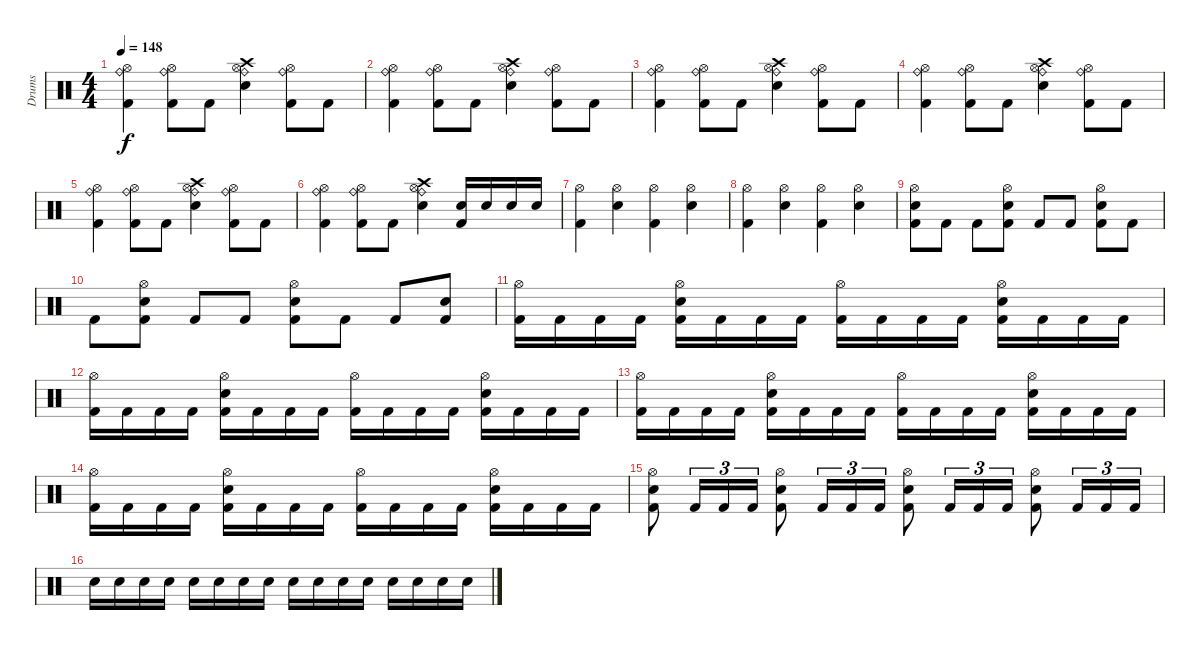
\track ("Drums" "Drums") {instrument percussion}
\staff {score}
\articulation defaults
\ts (4 4)
\tempo 148
\clef neutral
\ks c
("Ride (bell)" "Hi-Hat (open)" "Kick (hit) 2").4{dy f} ("Ride (bell)" "Hi-Hat (open)" "Kick (hit) 2").8 "Kick (hit) 2".8 ("Ride (bell)" "Crash high (hit)" "Hi-Hat (open)" "Snare (hit) 2").4 ("Ride (bell)" "Hi-Hat (open)" "Kick (hit) 2").8 "Kick (hit) 2".8 |
("Ride (bell)" "Hi-Hat (open)" "Kick (hit) 2").4 ("Ride (bell)" "Hi-Hat (open)" "Kick (hit) 2").8 "Kick (hit) 2".8 ("Ride (bell)" "Crash high (hit)" "Hi-Hat (open)" "Snare (hit) 2").4 ("Ride (bell)" "Hi-Hat (open)" "Kick (hit) 2").8 "Kick (hit) 2".8 |
("Ride (bell)" "Hi-Hat (open)" "Kick (hit) 2").4 ("Ride (bell)" "Hi-Hat (open)" "Kick (hit) 2").8 "Kick (hit) 2".8 ("Ride (bell)" "Crash high (hit)" "Hi-Hat (open)" "Snare (hit) 2").4 ("Ride (bell)" "Hi-Hat (open)" "Kick (hit) 2").8 "Kick (hit) 2".8 |
("Ride (bell)" "Hi-Hat (open)" "Kick (hit) 2").4 ("Ride (bell)" "Hi-Hat (open)" "Kick (hit) 2").8 "Kick (hit) 2".8 ("Ride (bell)" "Crash high (hit)" "Hi-Hat (open)" "Snare (hit) 2").4 ("Ride (bell)" "Hi-Hat (open)" "Kick (hit) 2").8 "Kick (hit) 2".8 |
("Ride (bell)" "Hi-Hat (open)" "Kick (hit) 2").4 ("Ride (bell)" "Hi-Hat (open)" "Kick (hit) 2").8 "Kick (hit) 2".8 ("Ride (bell)" "Crash high (hit)" "Hi-Hat (open)" "Snare (hit) 2").4 ("Ride (bell)" "Hi-Hat (open)" "Kick (hit) 2").8 "Kick (hit) 2".8 |
("Ride (bell)" "Hi-Hat (open)" "Kick (hit) 2").4 ("Ride (bell)" "Hi-Hat (open)" "Kick (hit) 2").8 "Kick (hit) 2".8 ("Ride (bell)" "Crash high (hit)" "Hi-Hat (open)" "Snare (hit) 2").4 ("Snare (hit) 2" "Kick (hit) 2").16 "Snare (hit) 2".16 "Snare (hit) 2".16 "Snare (hit) 2".16 |
("Hi-Hat (open)" "Kick (hit) 2").4 ("Hi-Hat (open)" "Snare (hit) 2").4 ("Hi-Hat (open)" "Kick (hit) 2").4 ("Hi-Hat (open)" "Snare (hit) 2").4 |
("Hi-Hat (open)" "Kick (hit) 2").4 ("Hi-Hat (open)" "Snare (hit) 2").4 ("Hi-Hat (open)" "Kick (hit) 2").4 ("Hi-Hat (open)" "Snare (hit) 2").4 |
("Hi-Hat (open)" "Snare (hit) 2" "Kick (hit) 2").8 "Kick (hit) 2".8 "Kick (hit) 2".8 ("Hi-Hat (open)" "Snare (hit) 2" "Kick (hit) 2").8 "Kick (hit) 2".8 "Kick (hit) 2".8 ("Hi-Hat (open)" "Snare (hit) 2" "Kick (hit) 2").8 "Kick (hit) 2".8 |
"Kick (hit) 2".8 ("Hi-Hat (open)" "Snare (hit) 2" "Kick (hit) 2").8 "Kick (hit) 2".8 "Kick (hit) 2".8 ("Hi-Hat (open)" "Snare (hit) 2" "Kick (hit) 2").8 "Kick (hit) 2".8 "Kick (hit) 2".8 ("Snare (hit) 2" "Kick (hit) 2").8 |
("Hi-Hat (open)" "Kick (hit) 2").16 "Kick (hit) 2".16 "Kick (hit) 2".16 "Kick (hit) 2".16 ("Hi-Hat (open)" "Snare (hit) 2" "Kick (hit) 2").16 "Kick (hit) 2".16 "Kick (hit) 2".16 "Kick (hit) 2".16 ("Hi-Hat (open)" "Kick (hit) 2").16 "Kick (hit) 2".16 "Kick (hit) 2".16 "Kick (hit) 2".16 ("Hi-Hat (open)" "Snare (hit) 2" "Kick (hit) 2").16 "Kick (hit) 2".16 "Kick (hit) 2".16 "Kick (hit) 2".16 |
("Hi-Hat (open)" "Kick (hit) 2").16 "Kick (hit) 2".16 "Kick (hit) 2".16 "Kick (hit) 2".16 ("Hi-Hat (open)" "Snare (hit) 2" "Kick (hit) 2").16 "Kick (hit) 2".16 "Kick (hit) 2".16 "Kick (hit) 2".16 ("Hi-Hat (open)" "Kick (hit) 2").16 "Kick (hit) 2".16 "Kick (hit) 2".16 "Kick (hit) 2".16 ("Hi-Hat (open)" "Snare (hit) 2" "Kick (hit) 2").16 "Kick (hit) 2".16 "Kick (hit) 2".16 "Kick (hit) 2".16 |
("Hi-Hat (open)" "Kick (hit) 2").16 "Kick (hit) 2".16 "Kick (hit) 2".16 "Kick (hit) 2".16 ("Hi-Hat (open)" "Snare (hit) 2" "Kick (hit) 2").16 "Kick (hit) 2".16 "Kick (hit) 2".16 "Kick (hit) 2".16 ("Hi-Hat (open)" "Kick (hit) 2").16 "Kick (hit) 2".16 "Kick (hit) 2".16 "Kick (hit) 2".16 ("Hi-Hat (open)" "Snare (hit) 2" "Kick (hit) 2").16 "Kick (hit) 2".16 "Kick (hit) 2".16 "Kick (hit) 2".16 |
("Hi-Hat (open)" "Kick (hit) 2").16 "Kick (hit) 2".16 "Kick (hit) 2".16 "Kick (hit) 2".16 ("Hi-Hat (open)" "Snare (hit) 2" "Kick (hit) 2").16 "Kick (hit) 2".16 "Kick (hit) 2".16 "Kick (hit) 2".16 ("Hi-Hat (open)" "Kick (hit) 2").16 "Kick (hit) 2".16 "Kick (hit) 2".16 "Kick (hit) 2".16 ("Hi-Hat (open)" "Snare (hit) 2" "Kick (hit) 2").16 "Kick (hit) 2".16 "Kick (hit) 2".16 "Kick (hit) 2".16 |
("Hi-Hat (open)" "Snare (hit) 2" "Kick (hit) 2").8 "Kick (hit) 2".16{tu (3 2)} "Kick (hit) 2".16{tu (3 2)} "Kick (hit) 2".16{tu (3 2)} ("Hi-Hat (open)" "Snare (hit) 2" "Kick (hit) 2").8 "Kick (hit) 2".16{tu (3 2)} "Kick (hit) 2".16{tu (3 2)} "Kick (hit) 2".16{tu (3 2)} ("Hi-Hat (open)" "Snare (hit) 2" "Kick (hit) 2").8 "Kick (hit) 2".16{tu (3 2)} "Kick (hit) 2".16{tu (3 2)} "Kick (hit) 2".16{tu (3 2)} ("Hi-Hat (open)" "Snare (hit) 2" "Kick (hit) 2").8 "Kick (hit) 2".16{tu (3 2)} "Kick (hit) 2".16{tu (3 2)} "Kick (hit) 2".16{tu (3 2)} |
"Snare (hit) 2".16 "Snare (hit) 2".16 "Snare (hit) 2".16 "Snare (hit) 2".16 "Snare (hit) 2".16 "Snare (hit) 2".16 "Snare (hit) 2".16 "Snare (hit) 2".16 "Snare (hit) 2".16 "Snare (hit) 2".16 "Snare (hit) 2".16 "Snare (hit) 2".16 "Snare (hit) 2".16 "Snare (hit) 2".16 "Snare (hit) 2".16 "Snare (hit) 2".16
